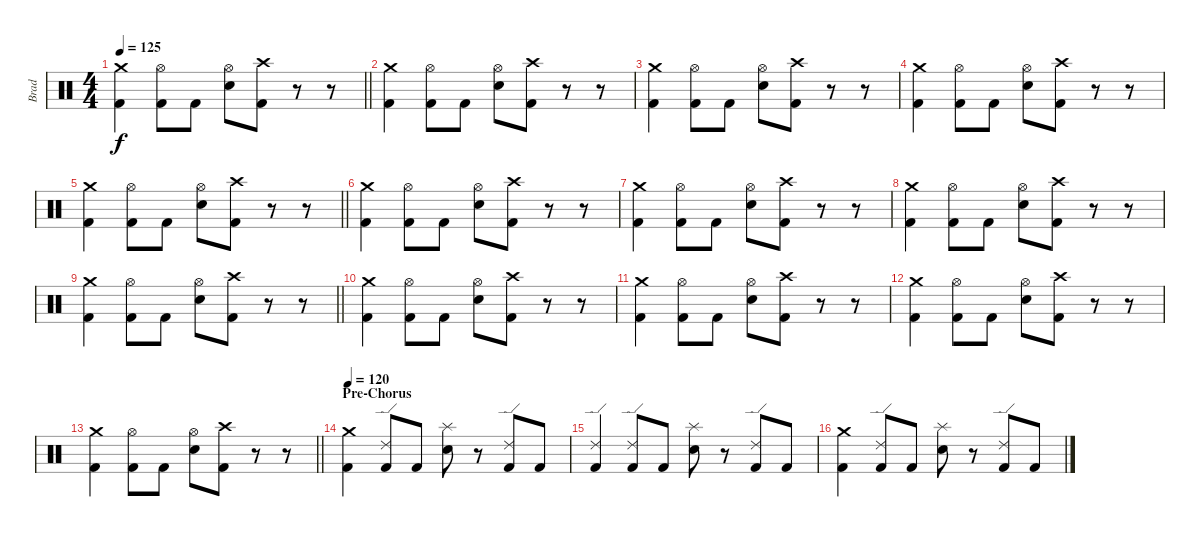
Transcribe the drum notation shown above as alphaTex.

\track ("Brad" "Brad") {instrument percussion}
\staff {score}
\articulation defaults
\ts (4 4)
\tempo 125
\clef neutral
\barLineRight lightlight
\ks c
("Crash medium (hit)" "Kick (hit) 2").4{dy f} ("Hi-Hat (open)" "Kick (hit) 2").8 "Kick (hit) 2".8 ("Hi-Hat (open)" "Electric Snare (hit)").8 ("Crash high (hit)" "Kick (hit) 2").8 r.8 r.8 |
("Crash medium (hit)" "Kick (hit) 2").4 ("Hi-Hat (open)" "Kick (hit) 2").8 "Kick (hit) 2".8 ("Hi-Hat (open)" "Electric Snare (hit)").8 ("Crash high (hit)" "Kick (hit) 2").8 r.8 r.8 |
("Crash medium (hit)" "Kick (hit) 2").4 ("Hi-Hat (open)" "Kick (hit) 2").8 "Kick (hit) 2".8 ("Hi-Hat (open)" "Electric Snare (hit)").8 ("Crash high (hit)" "Kick (hit) 2").8 r.8 r.8 |
("Crash medium (hit)" "Kick (hit) 2").4 ("Hi-Hat (open)" "Kick (hit) 2").8 "Kick (hit) 2".8 ("Hi-Hat (open)" "Electric Snare (hit)").8 ("Crash high (hit)" "Kick (hit) 2").8 r.8 r.8 |
\barLineRight lightlight
("Crash medium (hit)" "Kick (hit) 2").4 ("Hi-Hat (open)" "Kick (hit) 2").8 "Kick (hit) 2".8 ("Hi-Hat (open)" "Electric Snare (hit)").8 ("Crash high (hit)" "Kick (hit) 2").8 r.8 r.8 |
("Crash medium (hit)" "Kick (hit) 2").4 ("Hi-Hat (open)" "Kick (hit) 2").8 "Kick (hit) 2".8 ("Hi-Hat (open)" "Electric Snare (hit)").8 ("Crash high (hit)" "Kick (hit) 2").8 r.8 r.8 |
("Crash medium (hit)" "Kick (hit) 2").4 ("Hi-Hat (open)" "Kick (hit) 2").8 "Kick (hit) 2".8 ("Hi-Hat (open)" "Electric Snare (hit)").8 ("Crash high (hit)" "Kick (hit) 2").8 r.8 r.8 |
("Crash medium (hit)" "Kick (hit) 2").4 ("Hi-Hat (open)" "Kick (hit) 2").8 "Kick (hit) 2".8 ("Hi-Hat (open)" "Electric Snare (hit)").8 ("Crash high (hit)" "Kick (hit) 2").8 r.8 r.8 |
\barLineRight lightlight
("Crash medium (hit)" "Kick (hit) 2").4 ("Hi-Hat (open)" "Kick (hit) 2").8 "Kick (hit) 2".8 ("Hi-Hat (open)" "Electric Snare (hit)").8 ("Crash high (hit)" "Kick (hit) 2").8 r.8 r.8 |
("Crash medium (hit)" "Kick (hit) 2").4 ("Hi-Hat (open)" "Kick (hit) 2").8 "Kick (hit) 2".8 ("Hi-Hat (open)" "Electric Snare (hit)").8 ("Crash high (hit)" "Kick (hit) 2").8 r.8 r.8 |
("Crash medium (hit)" "Kick (hit) 2").4 ("Hi-Hat (open)" "Kick (hit) 2").8 "Kick (hit) 2".8 ("Hi-Hat (open)" "Electric Snare (hit)").8 ("Crash high (hit)" "Kick (hit) 2").8 r.8 r.8 |
("Crash medium (hit)" "Kick (hit) 2").4 ("Hi-Hat (open)" "Kick (hit) 2").8 "Kick (hit) 2".8 ("Hi-Hat (open)" "Electric Snare (hit)").8 ("Crash high (hit)" "Kick (hit) 2").8 r.8 r.8 |
\barLineRight lightlight
("Crash medium (hit)" "Kick (hit) 2").4 ("Hi-Hat (open)" "Kick (hit) 2").8 "Kick (hit) 2".8 ("Hi-Hat (open)" "Electric Snare (hit)").8 ("Crash high (hit)" "Kick (hit) 2").8 r.8 r.8 |
\section ("" "Pre-Chorus")
\tempo 120
("Crash medium (hit)" "Kick (hit) 2").4 ("Ride (edge) 2" "Kick (hit) 2").8 "Kick (hit) 2".8 ("Splash (hit)" "Electric Snare (hit)").8 r.8 ("Ride (edge) 2" "Kick (hit) 2").8 "Kick (hit) 2".8 |
("Ride (edge) 2" "Kick (hit) 2").4 ("Ride (edge) 2" "Kick (hit) 2").8 "Kick (hit) 2".8 ("Splash (hit)" "Electric Snare (hit)").8 r.8 ("Ride (edge) 2" "Kick (hit) 2").8 "Kick (hit) 2".8 |
("Crash medium (hit)" "Kick (hit) 2").4 ("Ride (edge) 2" "Kick (hit) 2").8 "Kick (hit) 2".8 ("Splash (hit)" "Electric Snare (hit)").8 r.8 ("Ride (edge) 2" "Kick (hit) 2").8 "Kick (hit) 2".8
